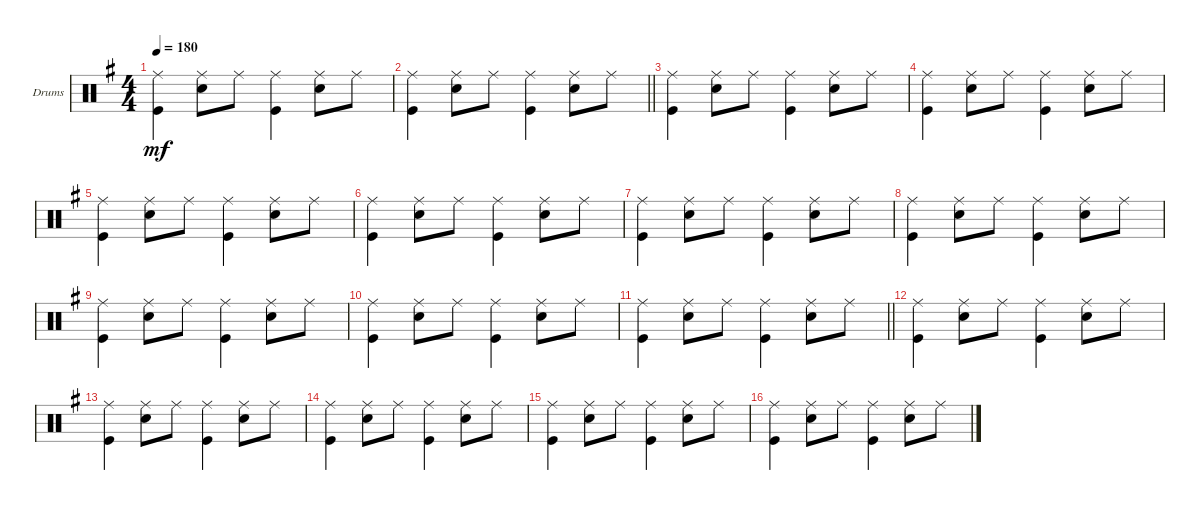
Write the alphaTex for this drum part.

\defaultSystemsLayout 4
\bracketExtendMode groupsimilarinstruments
\firstSystemTrackNameOrientation horizontal
\otherSystemsTrackNameOrientation horizontal
\track ("Drums Ringo" "Drums") {instrument percussion}
\staff {score}
\articulation defaults
\ts (4 4)
\tempo 180
\clef neutral
\ks g
("Ride (middle)" "Kick (hit)").4{dy mf} ("Snare (hit) 2" "Ride (middle)").8 "Ride (middle)".8 ("Ride (middle)" "Kick (hit)").4 ("Snare (hit) 2" "Ride (middle)").8 "Ride (middle)".8 |
\scale
0.333333
\barLineRight lightlight
("Ride (middle)" "Kick (hit)").4 ("Snare (hit) 2" "Ride (middle)").8 "Ride (middle)".8 ("Ride (middle)" "Kick (hit)").4 ("Snare (hit) 2" "Ride (middle)").8 "Ride (middle)".8 |
\scale
0.333333 ("Ride (middle)" "Kick (hit)").4 ("Snare (hit) 2" "Ride (middle)").8 "Ride (middle)".8 ("Ride (middle)" "Kick (hit)").4 ("Snare (hit) 2" "Ride (middle)").8 "Ride (middle)".8 |
\scale
0.333333 ("Ride (middle)" "Kick (hit)").4 ("Snare (hit) 2" "Ride (middle)").8 "Ride (middle)".8 ("Ride (middle)" "Kick (hit)").4 ("Snare (hit) 2" "Ride (middle)").8 "Ride (middle)".8 |
\scale
0.333333 ("Ride (middle)" "Kick (hit)").4 ("Snare (hit) 2" "Ride (middle)").8 "Ride (middle)".8 ("Ride (middle)" "Kick (hit)").4 ("Snare (hit) 2" "Ride (middle)").8 "Ride (middle)".8 |
\scale
0.333333 ("Ride (middle)" "Kick (hit)").4 ("Snare (hit) 2" "Ride (middle)").8 "Ride (middle)".8 ("Ride (middle)" "Kick (hit)").4 ("Snare (hit) 2" "Ride (middle)").8 "Ride (middle)".8 |
\scale
0.333333 ("Ride (middle)" "Kick (hit)").4 ("Snare (hit) 2" "Ride (middle)").8 "Ride (middle)".8 ("Ride (middle)" "Kick (hit)").4 ("Snare (hit) 2" "Ride (middle)").8 "Ride (middle)".8 |
\scale
0.333333 ("Ride (middle)" "Kick (hit)").4 ("Snare (hit) 2" "Ride (middle)").8 "Ride (middle)".8 ("Ride (middle)" "Kick (hit)").4 ("Snare (hit) 2" "Ride (middle)").8 "Ride (middle)".8 |
\scale
0.333333 ("Ride (middle)" "Kick (hit)").4 ("Snare (hit) 2" "Ride (middle)").8 "Ride (middle)".8 ("Ride (middle)" "Kick (hit)").4 ("Snare (hit) 2" "Ride (middle)").8 "Ride (middle)".8 |
\scale
0.333333 ("Ride (middle)" "Kick (hit)").4 ("Snare (hit) 2" "Ride (middle)").8 "Ride (middle)".8 ("Ride (middle)" "Kick (hit)").4 ("Snare (hit) 2" "Ride (middle)").8 "Ride (middle)".8 |
\barLineRight lightlight
("Ride (middle)" "Kick (hit)").4 ("Snare (hit) 2" "Ride (middle)").8 "Ride (middle)".8 ("Ride (middle)" "Kick (hit)").4 ("Snare (hit) 2" "Ride (middle)").8 "Ride (middle)".8 |
("Ride (middle)" "Kick (hit)").4 ("Snare (hit) 2" "Ride (middle)").8 "Ride (middle)".8 ("Ride (middle)" "Kick (hit)").4 ("Snare (hit) 2" "Ride (middle)").8 "Ride (middle)".8 |
("Ride (middle)" "Kick (hit)").4 ("Snare (hit) 2" "Ride (middle)").8 "Ride (middle)".8 ("Ride (middle)" "Kick (hit)").4 ("Snare (hit) 2" "Ride (middle)").8 "Ride (middle)".8 |
("Ride (middle)" "Kick (hit)").4 ("Snare (hit) 2" "Ride (middle)").8 "Ride (middle)".8 ("Ride (middle)" "Kick (hit)").4 ("Snare (hit) 2" "Ride (middle)").8 "Ride (middle)".8 |
("Ride (middle)" "Kick (hit)").4 ("Snare (hit) 2" "Ride (middle)").8 "Ride (middle)".8 ("Ride (middle)" "Kick (hit)").4 ("Snare (hit) 2" "Ride (middle)").8 "Ride (middle)".8 |
("Ride (middle)" "Kick (hit)").4 ("Snare (hit) 2" "Ride (middle)").8 "Ride (middle)".8 ("Ride (middle)" "Kick (hit)").4 ("Snare (hit) 2" "Ride (middle)").8 "Ride (middle)".8
